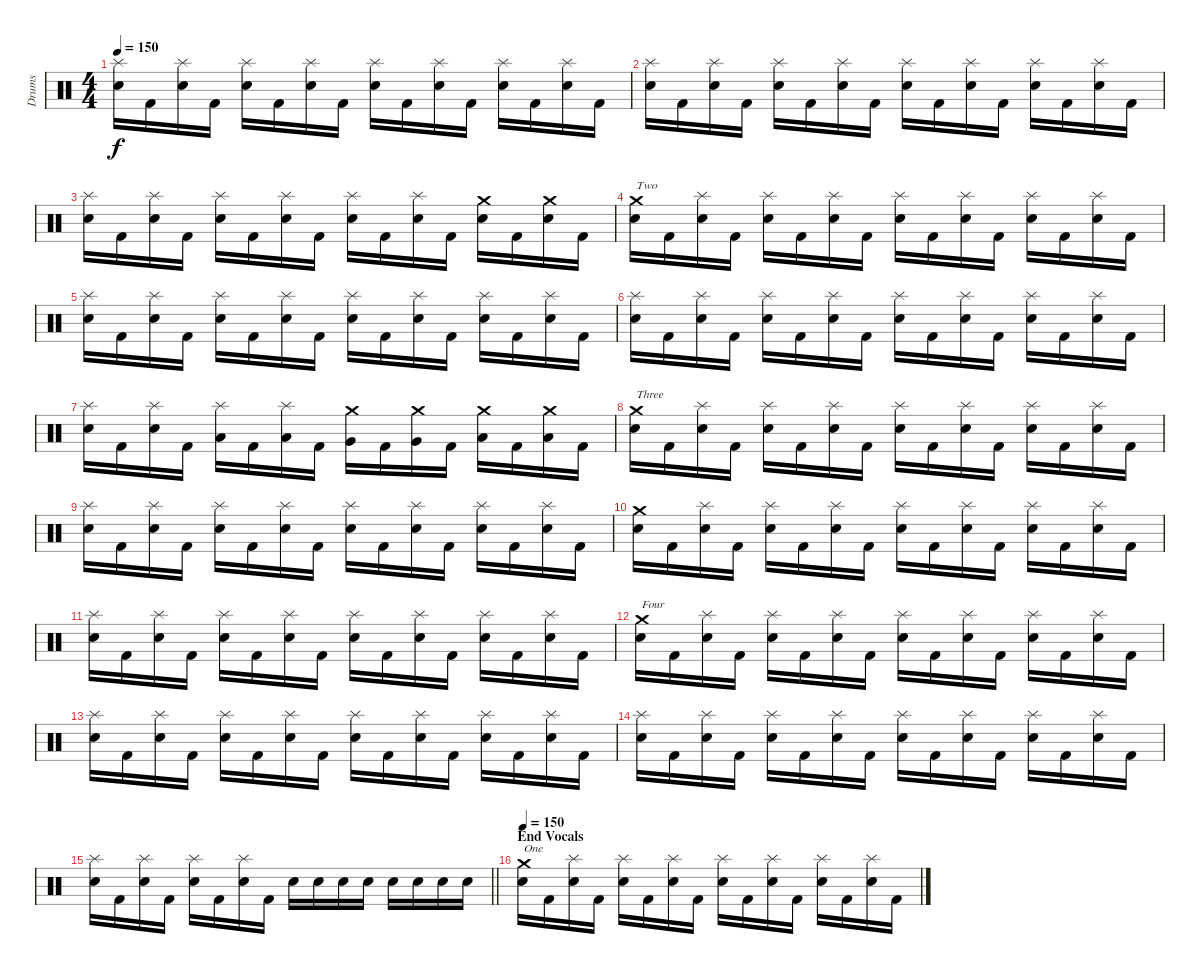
\track ("Drums" "Drums") {instrument percussion}
\staff {score}
\articulation defaults
\ts (4 4)
\tempo 150
\clef neutral
\ks c
("Splash (hit)" "Snare (hit) 2").16{dy f} "Kick (hit) 2".16 ("Splash (hit)" "Snare (hit) 2").16 "Kick (hit) 2".16 ("Splash (hit)" "Snare (hit) 2").16 "Kick (hit) 2".16 ("Splash (hit)" "Snare (hit) 2").16 "Kick (hit) 2".16 ("Splash (hit)" "Snare (hit) 2").16 "Kick (hit) 2".16 ("Splash (hit)" "Snare (hit) 2").16 "Kick (hit) 2".16 ("Splash (hit)" "Snare (hit) 2").16 "Kick (hit) 2".16 ("Splash (hit)" "Snare (hit) 2").16 "Kick (hit) 2".16 |
("Splash (hit)" "Snare (hit) 2").16 "Kick (hit) 2".16 ("Splash (hit)" "Snare (hit) 2").16 "Kick (hit) 2".16 ("Splash (hit)" "Snare (hit) 2").16 "Kick (hit) 2".16 ("Splash (hit)" "Snare (hit) 2").16 "Kick (hit) 2".16 ("Splash (hit)" "Snare (hit) 2").16 "Kick (hit) 2".16 ("Splash (hit)" "Snare (hit) 2").16 "Kick (hit) 2".16 ("Splash (hit)" "Snare (hit) 2").16 "Kick (hit) 2".16 ("Splash (hit)" "Snare (hit) 2").16 "Kick (hit) 2".16 |
("Splash (hit)" "Snare (hit) 2").16 "Kick (hit) 2".16 ("Splash (hit)" "Snare (hit) 2").16 "Kick (hit) 2".16 ("Splash (hit)" "Snare (hit) 2").16 "Kick (hit) 2".16 ("Splash (hit)" "Snare (hit) 2").16 "Kick (hit) 2".16 ("Splash (hit)" "Snare (hit) 2").16 "Kick (hit) 2".16 ("Splash (hit)" "Snare (hit) 2").16 "Kick (hit) 2".16 ("Crash medium (hit)" "Snare (hit) 2").16 "Kick (hit) 2".16 ("Crash medium (hit)" "Snare (hit) 2").16 "Kick (hit) 2".16 |
("Crash medium (hit)" "Snare (hit) 2").16{txt "Two"} "Kick (hit) 2".16 ("Splash (hit)" "Snare (hit) 2").16 "Kick (hit) 2".16 ("Splash (hit)" "Snare (hit) 2").16 "Kick (hit) 2".16 ("Splash (hit)" "Snare (hit) 2").16 "Kick (hit) 2".16 ("Splash (hit)" "Snare (hit) 2").16 "Kick (hit) 2".16 ("Splash (hit)" "Snare (hit) 2").16 "Kick (hit) 2".16 ("Splash (hit)" "Snare (hit) 2").16 "Kick (hit) 2".16 ("Splash (hit)" "Snare (hit) 2").16 "Kick (hit) 2".16 |
("Splash (hit)" "Snare (hit) 2").16 "Kick (hit) 2".16 ("Splash (hit)" "Snare (hit) 2").16 "Kick (hit) 2".16 ("Splash (hit)" "Snare (hit) 2").16 "Kick (hit) 2".16 ("Splash (hit)" "Snare (hit) 2").16 "Kick (hit) 2".16 ("Splash (hit)" "Snare (hit) 2").16 "Kick (hit) 2".16 ("Splash (hit)" "Snare (hit) 2").16 "Kick (hit) 2".16 ("Splash (hit)" "Snare (hit) 2").16 "Kick (hit) 2".16 ("Splash (hit)" "Snare (hit) 2").16 "Kick (hit) 2".16 |
("Splash (hit)" "Snare (hit) 2").16 "Kick (hit) 2".16 ("Splash (hit)" "Snare (hit) 2").16 "Kick (hit) 2".16 ("Splash (hit)" "Snare (hit) 2").16 "Kick (hit) 2".16 ("Splash (hit)" "Snare (hit) 2").16 "Kick (hit) 2".16 ("Splash (hit)" "Snare (hit) 2").16 "Kick (hit) 2".16 ("Splash (hit)" "Snare (hit) 2").16 "Kick (hit) 2".16 ("Splash (hit)" "Snare (hit) 2").16 "Kick (hit) 2".16 ("Splash (hit)" "Snare (hit) 2").16 "Kick (hit) 2".16 |
("Splash (hit)" "Snare (hit) 2").16 "Kick (hit) 2".16 ("Splash (hit)" "Snare (hit) 2").16 "Kick (hit) 2".16 ("Splash (hit)" "Low Tom (hit)").16 "Kick (hit) 2".16 ("Splash (hit)" "Low Tom (hit)").16 "Kick (hit) 2".16 ("Crash medium (hit)" "Very Low Tom (hit)").16 "Kick (hit) 2".16 ("Crash medium (hit)" "Very Low Tom (hit)").16 "Kick (hit) 2".16 ("Crash medium (hit)" "Low Floor Tom (hit)").16 "Kick (hit) 2".16 ("Crash medium (hit)" "Low Floor Tom (hit)").16 "Kick (hit) 2".16 |
("Crash medium (hit)" "Snare (hit) 2").16{txt "Three"} "Kick (hit) 2".16 ("Splash (hit)" "Snare (hit) 2").16 "Kick (hit) 2".16 ("Splash (hit)" "Snare (hit) 2").16 "Kick (hit) 2".16 ("Splash (hit)" "Snare (hit) 2").16 "Kick (hit) 2".16 ("Splash (hit)" "Snare (hit) 2").16 "Kick (hit) 2".16 ("Splash (hit)" "Snare (hit) 2").16 "Kick (hit) 2".16 ("Splash (hit)" "Snare (hit) 2").16 "Kick (hit) 2".16 ("Splash (hit)" "Snare (hit) 2").16 "Kick (hit) 2".16 |
("Splash (hit)" "Snare (hit) 2").16 "Kick (hit) 2".16 ("Splash (hit)" "Snare (hit) 2").16 "Kick (hit) 2".16 ("Splash (hit)" "Snare (hit) 2").16 "Kick (hit) 2".16 ("Splash (hit)" "Snare (hit) 2").16 "Kick (hit) 2".16 ("Splash (hit)" "Snare (hit) 2").16 "Kick (hit) 2".16 ("Splash (hit)" "Snare (hit) 2").16 "Kick (hit) 2".16 ("Splash (hit)" "Snare (hit) 2").16 "Kick (hit) 2".16 ("Splash (hit)" "Snare (hit) 2").16 "Kick (hit) 2".16 |
("Crash medium (hit)" "Snare (hit) 2").16 "Kick (hit) 2".16 ("Splash (hit)" "Snare (hit) 2").16 "Kick (hit) 2".16 ("Splash (hit)" "Snare (hit) 2").16 "Kick (hit) 2".16 ("Splash (hit)" "Snare (hit) 2").16 "Kick (hit) 2".16 ("Splash (hit)" "Snare (hit) 2").16 "Kick (hit) 2".16 ("Splash (hit)" "Snare (hit) 2").16 "Kick (hit) 2".16 ("Splash (hit)" "Snare (hit) 2").16 "Kick (hit) 2".16 ("Splash (hit)" "Snare (hit) 2").16 "Kick (hit) 2".16 |
("Splash (hit)" "Snare (hit) 2").16 "Kick (hit) 2".16 ("Splash (hit)" "Snare (hit) 2").16 "Kick (hit) 2".16 ("Splash (hit)" "Snare (hit) 2").16 "Kick (hit) 2".16 ("Splash (hit)" "Snare (hit) 2").16 "Kick (hit) 2".16 ("Splash (hit)" "Snare (hit) 2").16 "Kick (hit) 2".16 ("Splash (hit)" "Snare (hit) 2").16 "Kick (hit) 2".16 ("Splash (hit)" "Snare (hit) 2").16 "Kick (hit) 2".16 ("Splash (hit)" "Snare (hit) 2").16 "Kick (hit) 2".16 |
("Crash medium (hit)" "Snare (hit) 2").16{txt "Four"} "Kick (hit) 2".16 ("Splash (hit)" "Snare (hit) 2").16 "Kick (hit) 2".16 ("Splash (hit)" "Snare (hit) 2").16 "Kick (hit) 2".16 ("Splash (hit)" "Snare (hit) 2").16 "Kick (hit) 2".16 ("Splash (hit)" "Snare (hit) 2").16 "Kick (hit) 2".16 ("Splash (hit)" "Snare (hit) 2").16 "Kick (hit) 2".16 ("Splash (hit)" "Snare (hit) 2").16 "Kick (hit) 2".16 ("Splash (hit)" "Snare (hit) 2").16 "Kick (hit) 2".16 |
("Splash (hit)" "Snare (hit) 2").16 "Kick (hit) 2".16 ("Splash (hit)" "Snare (hit) 2").16 "Kick (hit) 2".16 ("Splash (hit)" "Snare (hit) 2").16 "Kick (hit) 2".16 ("Splash (hit)" "Snare (hit) 2").16 "Kick (hit) 2".16 ("Splash (hit)" "Snare (hit) 2").16 "Kick (hit) 2".16 ("Splash (hit)" "Snare (hit) 2").16 "Kick (hit) 2".16 ("Splash (hit)" "Snare (hit) 2").16 "Kick (hit) 2".16 ("Splash (hit)" "Snare (hit) 2").16 "Kick (hit) 2".16 |
("Splash (hit)" "Snare (hit) 2").16 "Kick (hit) 2".16 ("Splash (hit)" "Snare (hit) 2").16 "Kick (hit) 2".16 ("Splash (hit)" "Snare (hit) 2").16 "Kick (hit) 2".16 ("Splash (hit)" "Snare (hit) 2").16 "Kick (hit) 2".16 ("Splash (hit)" "Snare (hit) 2").16 "Kick (hit) 2".16 ("Splash (hit)" "Snare (hit) 2").16 "Kick (hit) 2".16 ("Splash (hit)" "Snare (hit) 2").16 "Kick (hit) 2".16 ("Splash (hit)" "Snare (hit) 2").16 "Kick (hit) 2".16 |
\barLineRight lightlight
("Splash (hit)" "Snare (hit) 2").16 "Kick (hit) 2".16 ("Splash (hit)" "Snare (hit) 2").16 "Kick (hit) 2".16 ("Splash (hit)" "Snare (hit) 2").16 "Kick (hit) 2".16 ("Splash (hit)" "Snare (hit) 2").16 "Kick (hit) 2".16 "Snare (hit) 2".16 "Snare (hit) 2".16 "Snare (hit) 2".16 "Snare (hit) 2".16 "Snare (hit) 2".16 "Snare (hit) 2".16 "Snare (hit) 2".16 "Snare (hit) 2".16 |
\section ("" "End Vocals")
\tempo 150
("Crash medium (hit)" "Snare (hit) 2").16{txt "One"} "Kick (hit) 2".16 ("Splash (hit)" "Snare (hit) 2").16 "Kick (hit) 2".16 ("Splash (hit)" "Snare (hit) 2").16 "Kick (hit) 2".16 ("Splash (hit)" "Snare (hit) 2").16 "Kick (hit) 2".16 ("Splash (hit)" "Snare (hit) 2").16 "Kick (hit) 2".16 ("Splash (hit)" "Snare (hit) 2").16 "Kick (hit) 2".16 ("Splash (hit)" "Snare (hit) 2").16 "Kick (hit) 2".16 ("Splash (hit)" "Snare (hit) 2").16 "Kick (hit) 2".16
